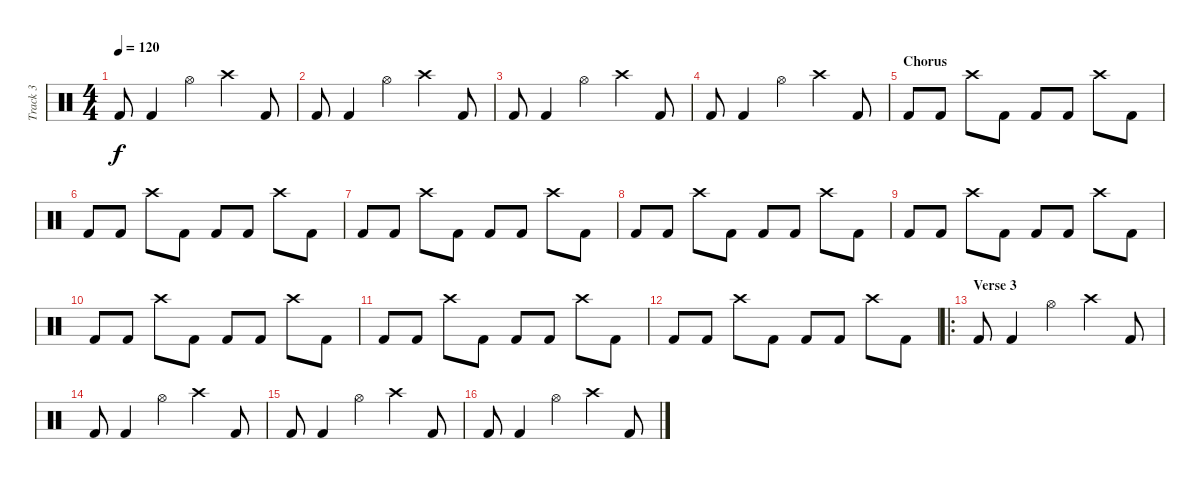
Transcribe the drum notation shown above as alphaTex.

\track ("Track 3" "Track 3") {instrument percussion}
\staff {score}
\articulation defaults
\ts (4 4)
\tempo 120
\clef neutral
\ks c "Kick (hit) 2".8{dy f} "Kick (hit) 2".4 "Hi-Hat (open)".4 "Crash high (hit)".4 "Kick (hit) 2".8
|
"Kick (hit) 2".8 "Kick (hit) 2".4 "Hi-Hat (open)".4 "Crash high (hit)".4 "Kick (hit) 2".8 |
"Kick (hit) 2".8 "Kick (hit) 2".4 "Hi-Hat (open)".4 "Crash high (hit)".4 "Kick (hit) 2".8 |
"Kick (hit) 2".8 "Kick (hit) 2".4 "Hi-Hat (open)".4 "Crash high (hit)".4 "Kick (hit) 2".8 |
\section ("" "Chorus")
"Kick (hit) 2".8 "Kick (hit) 2".8 "Crash high (hit)".8 "Kick (hit) 2".8 "Kick (hit) 2".8 "Kick (hit) 2".8 "Crash high (hit)".8 "Kick (hit) 2".8 |
"Kick (hit) 2".8 "Kick (hit) 2".8 "Crash high (hit)".8 "Kick (hit) 2".8 "Kick (hit) 2".8 "Kick (hit) 2".8 "Crash high (hit)".8 "Kick (hit) 2".8 |
"Kick (hit) 2".8 "Kick (hit) 2".8 "Crash high (hit)".8 "Kick (hit) 2".8 "Kick (hit) 2".8 "Kick (hit) 2".8 "Crash high (hit)".8 "Kick (hit) 2".8 |
"Kick (hit) 2".8 "Kick (hit) 2".8 "Crash high (hit)".8 "Kick (hit) 2".8 "Kick (hit) 2".8 "Kick (hit) 2".8 "Crash high (hit)".8 "Kick (hit) 2".8 |
"Kick (hit) 2".8 "Kick (hit) 2".8 "Crash high (hit)".8 "Kick (hit) 2".8 "Kick (hit) 2".8 "Kick (hit) 2".8 "Crash high (hit)".8 "Kick (hit) 2".8 |
"Kick (hit) 2".8 "Kick (hit) 2".8 "Crash high (hit)".8 "Kick (hit) 2".8 "Kick (hit) 2".8 "Kick (hit) 2".8 "Crash high (hit)".8 "Kick (hit) 2".8 |
"Kick (hit) 2".8 "Kick (hit) 2".8 "Crash high (hit)".8 "Kick (hit) 2".8 "Kick (hit) 2".8 "Kick (hit) 2".8 "Crash high (hit)".8 "Kick (hit) 2".8 |
"Kick (hit) 2".8 "Kick (hit) 2".8 "Crash high (hit)".8 "Kick (hit) 2".8 "Kick (hit) 2".8 "Kick (hit) 2".8 "Crash high (hit)".8 "Kick (hit) 2".8 |
\ro
\section ("" "Verse 3")
"Kick (hit) 2".8 "Kick (hit) 2".4 "Hi-Hat (open)".4 "Crash high (hit)".4 "Kick (hit) 2".8 |
"Kick (hit) 2".8 "Kick (hit) 2".4 "Hi-Hat (open)".4 "Crash high (hit)".4 "Kick (hit) 2".8 |
"Kick (hit) 2".8 "Kick (hit) 2".4 "Hi-Hat (open)".4 "Crash high (hit)".4 "Kick (hit) 2".8 |
"Kick (hit) 2".8 "Kick (hit) 2".4 "Hi-Hat (open)".4 "Crash high (hit)".4 "Kick (hit) 2".8
